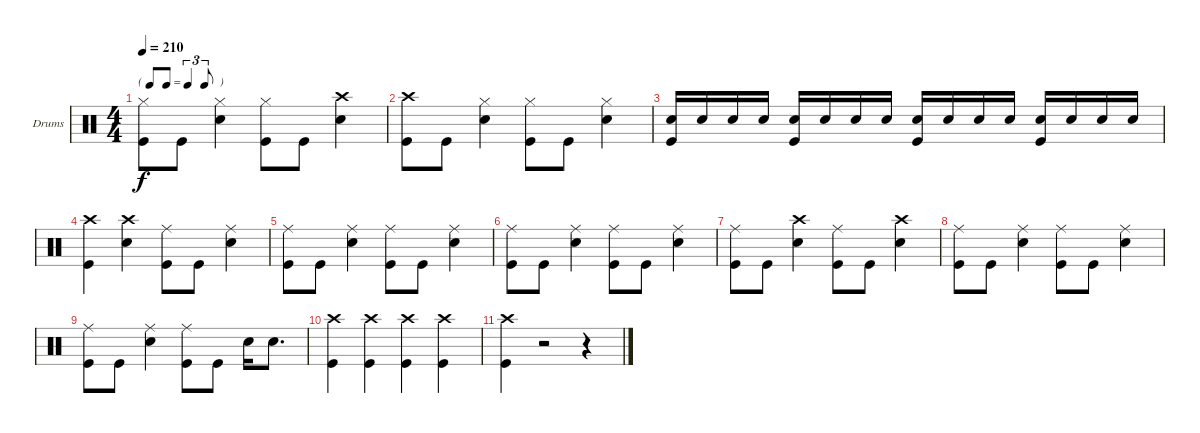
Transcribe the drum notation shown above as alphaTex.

\bracketExtendMode groupsimilarinstruments
\firstSystemTrackNameOrientation horizontal
\otherSystemsTrackNameOrientation horizontal
\track ("Drums" "Drums") {instrument percussion}
\staff {score}
\articulation defaults
\ts (4 4)
\tf triplet8th
\tempo 210
\clef neutral
\ks c
("Hi-Hat (closed)" "Kick (hit)").8{dy f} "Kick (hit)".8 ("Snare (hit) 2" "Hi-Hat (closed)").4 ("Hi-Hat (closed)" "Kick (hit)").8 "Kick (hit)".8 ("Crash high (hit)" "Snare (hit) 2").4 |
("Crash high (hit)" "Kick (hit)").8 "Kick (hit)".8 ("Snare (hit) 2" "Hi-Hat (closed)").4 ("Hi-Hat (closed)" "Kick (hit)").8 "Kick (hit)".8 ("Snare (hit) 2" "Hi-Hat (closed)").4 |
("Snare (hit) 2" "Kick (hit)").16 "Snare (hit) 2".16 "Snare (hit) 2".16 "Snare (hit) 2".16 ("Snare (hit) 2" "Kick (hit)").16 "Snare (hit) 2".16 "Snare (hit) 2".16 "Snare (hit) 2".16 ("Snare (hit) 2" "Kick (hit)").16 "Snare (hit) 2".16 "Snare (hit) 2".16 "Snare (hit) 2".16 ("Snare (hit) 2" "Kick (hit)").16 "Snare (hit) 2".16 "Snare (hit) 2".16 "Snare (hit) 2".16 |
("Kick (hit)" "Crash high (hit)").4 ("Snare (hit) 2" "Crash high (hit)").4 ("Kick (hit)" "Ride (middle)").8 "Kick (hit)".8 ("Snare (hit) 2" "Ride (middle)").4 |
("Ride (middle)" "Kick (hit)").8 "Kick (hit)".8 ("Snare (hit) 2" "Ride (middle)").4 ("Ride (middle)" "Kick (hit)").8 "Kick (hit)".8 ("Snare (hit) 2" "Ride (middle)").4 |
("Ride (middle)" "Kick (hit)").8 "Kick (hit)".8 ("Snare (hit) 2" "Ride (middle)").4 ("Ride (middle)" "Kick (hit)").8 "Kick (hit)".8 ("Snare (hit) 2" "Ride (middle)").4 |
("Ride (middle)" "Kick (hit)").8 "Kick (hit)".8 ("Snare (hit) 2" "Crash high (hit)").4 ("Ride (middle)" "Kick (hit)").8 "Kick (hit)".8 ("Snare (hit) 2" "Crash high (hit)").4 |
("Ride (middle)" "Kick (hit)").8 "Kick (hit)".8 ("Snare (hit) 2" "Ride (middle)").4 ("Ride (middle)" "Kick (hit)").8 "Kick (hit)".8 ("Snare (hit) 2" "Ride (middle)").4 |
("Ride (middle)" "Kick (hit)").8 "Kick (hit)".8 ("Snare (hit) 2" "Ride (middle)").4 ("Ride (middle)" "Kick (hit)").8 "Kick (hit)".8 "Snare (hit) 2".16 "Snare (hit) 2".8{d} |
("Crash high (hit)" "Kick (hit)").4 ("Crash high (hit)" "Kick (hit)").4 ("Crash high (hit)" "Kick (hit)").4 ("Crash high (hit)" "Kick (hit)").4 |
("Crash high (hit)" "Kick (hit)").4 r.2 r.4
